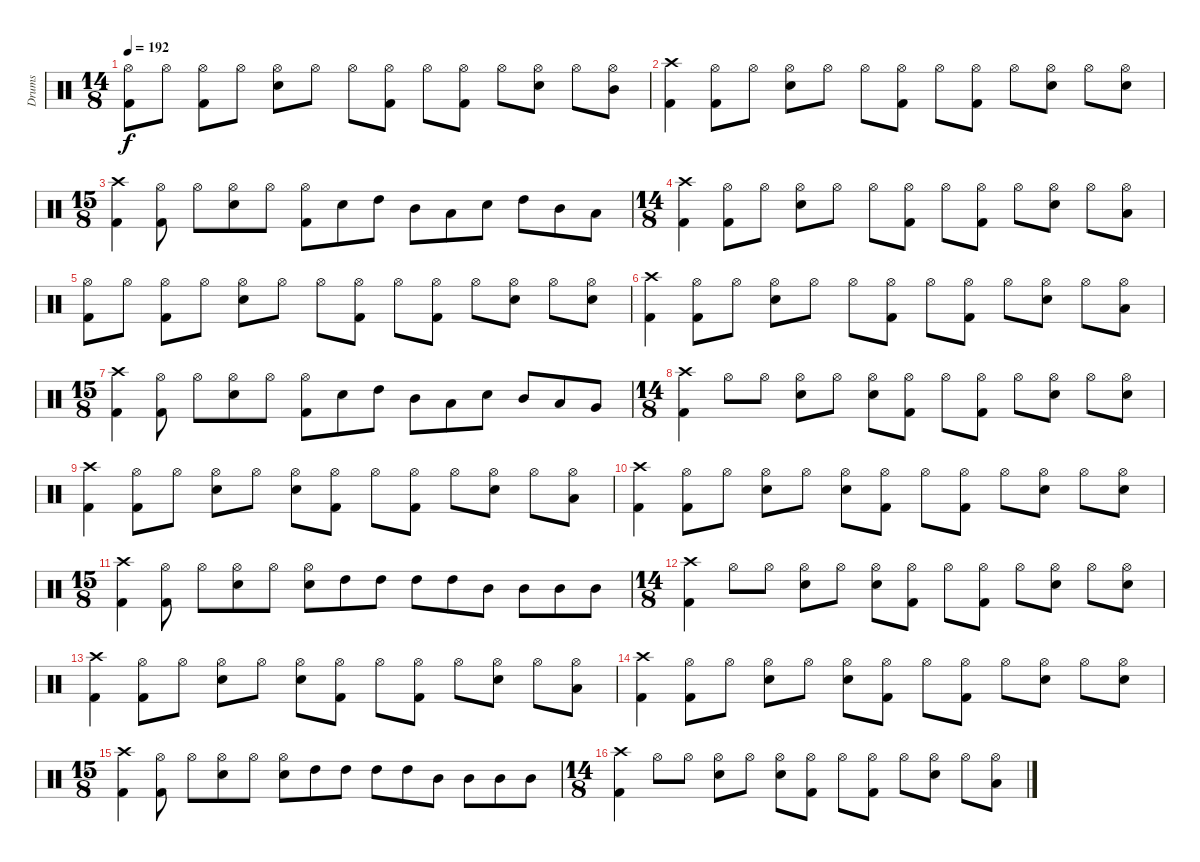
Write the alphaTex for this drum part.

\track ("Drums" "Drums") {instrument percussion}
\staff {score}
\articulation defaults
\ts (14 8)
\tempo 192
\clef neutral
\ks c
("Hi-Hat (open)" "Kick (hit) 2").8{dy f} "Hi-Hat (open)".8 ("Hi-Hat (open)" "Kick (hit) 2").8 "Hi-Hat (open)".8 ("Hi-Hat (open)" "Snare (hit) 2").8 "Hi-Hat (open)".8 "Hi-Hat (open)".8 ("Hi-Hat (open)" "Kick (hit) 2").8 "Hi-Hat (open)".8 ("Hi-Hat (open)" "Kick (hit) 2").8 "Hi-Hat (open)".8 ("Hi-Hat (open)" "Snare (hit) 2").8 "Hi-Hat (open)".8 ("Hi-Hat (open)" "Mid Tom (hit)").8 |
("Crash high (hit)" "Kick (hit) 2").4 ("Hi-Hat (open)" "Kick (hit) 2").8 "Hi-Hat (open)".8 ("Hi-Hat (open)" "Snare (hit) 2").8 "Hi-Hat (open)".8 "Hi-Hat (open)".8 ("Hi-Hat (open)" "Kick (hit) 2").8 "Hi-Hat (open)".8 ("Hi-Hat (open)" "Kick (hit) 2").8 "Hi-Hat (open)".8 ("Hi-Hat (open)" "Snare (hit) 2").8 "Hi-Hat (open)".8 ("Hi-Hat (open)" "Snare (hit) 2").8 |
\ts (15 8)
("Crash high (hit)" "Kick (hit) 2").4 ("Hi-Hat (open)" "Kick (hit) 2").8 "Hi-Hat (open)".8 ("Hi-Hat (open)" "Snare (hit) 2").8 "Hi-Hat (open)".8 ("Hi-Hat (open)" "Kick (hit) 2").8 "Snare (hit) 2".8 "High Tom (hit)".8 "Mid Tom (hit)".8 "Low Tom (hit)".8 "Snare (hit) 2".8 "High Tom (hit)".8 "Mid Tom (hit)".8 "Low Tom (hit)".8 |
\ts (14 8)
("Crash high (hit)" "Kick (hit) 2").4 ("Hi-Hat (open)" "Kick (hit) 2").8 "Hi-Hat (open)".8 ("Hi-Hat (open)" "Snare (hit) 2").8 "Hi-Hat (open)".8 "Hi-Hat (open)".8 ("Hi-Hat (open)" "Kick (hit) 2").8 "Hi-Hat (open)".8 ("Hi-Hat (open)" "Kick (hit) 2").8 "Hi-Hat (open)".8 ("Hi-Hat (open)" "Snare (hit) 2").8 "Hi-Hat (open)".8 ("Hi-Hat (open)" "Low Tom (hit)").8 |
("Hi-Hat (open)" "Kick (hit) 2").8 "Hi-Hat (open)".8 ("Hi-Hat (open)" "Kick (hit) 2").8 "Hi-Hat (open)".8 ("Hi-Hat (open)" "Snare (hit) 2").8 "Hi-Hat (open)".8 "Hi-Hat (open)".8 ("Hi-Hat (open)" "Kick (hit) 2").8 "Hi-Hat (open)".8 ("Hi-Hat (open)" "Kick (hit) 2").8 "Hi-Hat (open)".8 ("Hi-Hat (open)" "Snare (hit) 2").8 "Hi-Hat (open)".8 ("Hi-Hat (open)" "Snare (hit) 2").8 |
("Crash high (hit)" "Kick (hit) 2").4 ("Hi-Hat (open)" "Kick (hit) 2").8 "Hi-Hat (open)".8 ("Hi-Hat (open)" "Snare (hit) 2").8 "Hi-Hat (open)".8 "Hi-Hat (open)".8 ("Hi-Hat (open)" "Kick (hit) 2").8 "Hi-Hat (open)".8 ("Hi-Hat (open)" "Kick (hit) 2").8 "Hi-Hat (open)".8 ("Hi-Hat (open)" "Snare (hit) 2").8 "Hi-Hat (open)".8 ("Hi-Hat (open)" "Low Tom (hit)").8 |
\ts (15 8)
("Crash high (hit)" "Kick (hit) 2").4 ("Hi-Hat (open)" "Kick (hit) 2").8 "Hi-Hat (open)".8 ("Hi-Hat (open)" "Snare (hit) 2").8 "Hi-Hat (open)".8 ("Hi-Hat (open)" "Kick (hit) 2").8 "Snare (hit) 2".8 "High Tom (hit)".8 "Mid Tom (hit)".8 "Low Tom (hit)".8 "Snare (hit) 2".8 "Mid Tom (hit)".8 "Low Tom (hit)".8 "Very Low Tom (hit)".8 |
\ts (14 8)
("Crash high (hit)" "Kick (hit) 2").4 "Hi-Hat (open)".8 "Hi-Hat (open)".8 ("Hi-Hat (open)" "Snare (hit) 2").8 "Hi-Hat (open)".8 ("Hi-Hat (open)" "Snare (hit) 2").8 ("Hi-Hat (open)" "Kick (hit) 2").8 "Hi-Hat (open)".8 ("Hi-Hat (open)" "Kick (hit) 2").8 "Hi-Hat (open)".8 ("Hi-Hat (open)" "Snare (hit) 2").8 "Hi-Hat (open)".8 ("Hi-Hat (open)" "Snare (hit) 2").8 |
("Crash high (hit)" "Kick (hit) 2").4 ("Hi-Hat (open)" "Kick (hit) 2").8 "Hi-Hat (open)".8 ("Hi-Hat (open)" "Snare (hit) 2").8 "Hi-Hat (open)".8 ("Hi-Hat (open)" "Snare (hit) 2").8 ("Hi-Hat (open)" "Kick (hit) 2").8 "Hi-Hat (open)".8 ("Hi-Hat (open)" "Kick (hit) 2").8 "Hi-Hat (open)".8 ("Hi-Hat (open)" "Snare (hit) 2").8 "Hi-Hat (open)".8 ("Hi-Hat (open)" "Low Tom (hit)").8 |
("Crash high (hit)" "Kick (hit) 2").4 ("Hi-Hat (open)" "Kick (hit) 2").8 "Hi-Hat (open)".8 ("Hi-Hat (open)" "Snare (hit) 2").8 "Hi-Hat (open)".8 ("Hi-Hat (open)" "Snare (hit) 2").8 ("Hi-Hat (open)" "Kick (hit) 2").8 "Hi-Hat (open)".8 ("Hi-Hat (open)" "Kick (hit) 2").8 "Hi-Hat (open)".8 ("Hi-Hat (open)" "Snare (hit) 2").8 "Hi-Hat (open)".8 ("Hi-Hat (open)" "Snare (hit) 2").8 |
\ts (15 8)
("Crash high (hit)" "Kick (hit) 2").4 ("Hi-Hat (open)" "Kick (hit) 2").8 "Hi-Hat (open)".8 ("Hi-Hat (open)" "Snare (hit) 2").8 "Hi-Hat (open)".8 ("Hi-Hat (open)" "Snare (hit) 2").8 "High Tom (hit)".8 "High Tom (hit)".8 "High Tom (hit)".8 "High Tom (hit)".8 "Mid Tom (hit)".8 "Mid Tom (hit)".8 "Mid Tom (hit)".8 "Mid Tom (hit)".8 |
\ts (14 8)
("Crash high (hit)" "Kick (hit) 2").4 "Hi-Hat (open)".8 "Hi-Hat (open)".8 ("Hi-Hat (open)" "Snare (hit) 2").8 "Hi-Hat (open)".8 ("Hi-Hat (open)" "Snare (hit) 2").8 ("Hi-Hat (open)" "Kick (hit) 2").8 "Hi-Hat (open)".8 ("Hi-Hat (open)" "Kick (hit) 2").8 "Hi-Hat (open)".8 ("Hi-Hat (open)" "Snare (hit) 2").8 "Hi-Hat (open)".8 ("Hi-Hat (open)" "Snare (hit) 2").8 |
("Crash high (hit)" "Kick (hit) 2").4 ("Hi-Hat (open)" "Kick (hit) 2").8 "Hi-Hat (open)".8 ("Hi-Hat (open)" "Snare (hit) 2").8 "Hi-Hat (open)".8 ("Hi-Hat (open)" "Snare (hit) 2").8 ("Hi-Hat (open)" "Kick (hit) 2").8 "Hi-Hat (open)".8 ("Hi-Hat (open)" "Kick (hit) 2").8 "Hi-Hat (open)".8 ("Hi-Hat (open)" "Snare (hit) 2").8 "Hi-Hat (open)".8 ("Hi-Hat (open)" "Low Tom (hit)").8 |
("Crash high (hit)" "Kick (hit) 2").4 ("Hi-Hat (open)" "Kick (hit) 2").8 "Hi-Hat (open)".8 ("Hi-Hat (open)" "Snare (hit) 2").8 "Hi-Hat (open)".8 ("Hi-Hat (open)" "Snare (hit) 2").8 ("Hi-Hat (open)" "Kick (hit) 2").8 "Hi-Hat (open)".8 ("Hi-Hat (open)" "Kick (hit) 2").8 "Hi-Hat (open)".8 ("Hi-Hat (open)" "Snare (hit) 2").8 "Hi-Hat (open)".8 ("Hi-Hat (open)" "Snare (hit) 2").8 |
\ts (15 8)
("Crash high (hit)" "Kick (hit) 2").4 ("Hi-Hat (open)" "Kick (hit) 2").8 "Hi-Hat (open)".8 ("Hi-Hat (open)" "Snare (hit) 2").8 "Hi-Hat (open)".8 ("Hi-Hat (open)" "Snare (hit) 2").8 "High Tom (hit)".8 "High Tom (hit)".8 "High Tom (hit)".8 "High Tom (hit)".8 "Mid Tom (hit)".8 "Mid Tom (hit)".8 "Mid Tom (hit)".8 "Mid Tom (hit)".8 |
\ts (14 8)
("Crash high (hit)" "Kick (hit) 2").4 "Hi-Hat (open)".8 "Hi-Hat (open)".8 ("Hi-Hat (open)" "Snare (hit) 2").8 "Hi-Hat (open)".8 ("Hi-Hat (open)" "Snare (hit) 2").8 ("Hi-Hat (open)" "Kick (hit) 2").8 "Hi-Hat (open)".8 ("Hi-Hat (open)" "Kick (hit) 2").8 "Hi-Hat (open)".8 ("Hi-Hat (open)" "Snare (hit) 2").8 "Hi-Hat (open)".8 ("Hi-Hat (open)" "Low Tom (hit)").8
